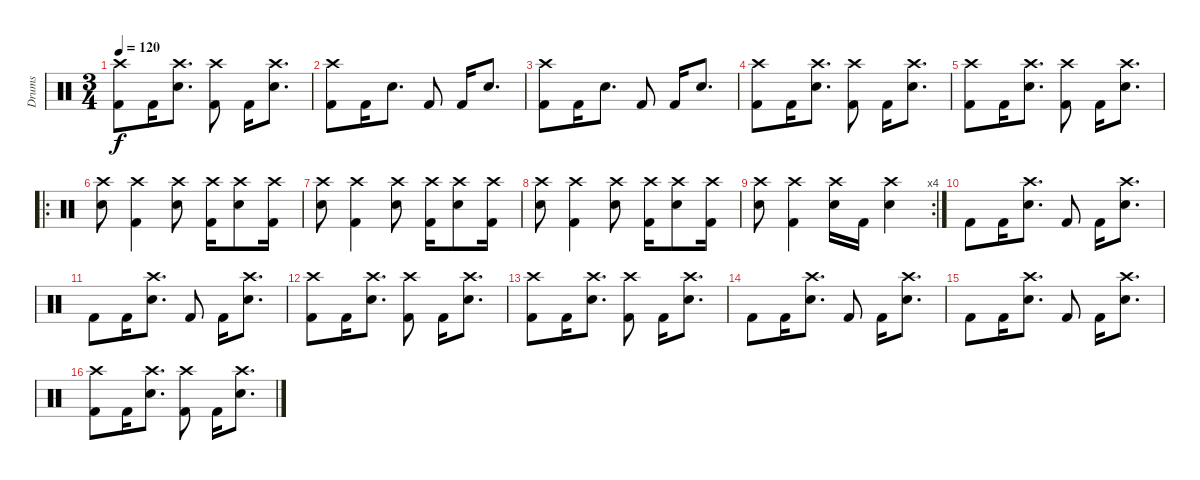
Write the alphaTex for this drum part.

\track ("Drums" "Drums") {instrument percussion}
\staff {score}
\articulation defaults
\ts (3 4)
\tempo 120
\clef neutral
\ks c
("Crash high (hit)" "Kick (hit) 2").8{dy f} "Kick (hit) 2".16 ("Crash high (hit)" "Snare (hit) 2").8{d} ("Crash high (hit)" "Kick (hit) 2").8 "Kick (hit) 2".16 ("Crash high (hit)" "Snare (hit) 2").8{d} |
("Crash high (hit)" "Kick (hit) 2").8 "Kick (hit) 2".16 "Snare (hit) 2".8{d} "Kick (hit) 2".8 "Kick (hit) 2".16 "Snare (hit) 2".8{d} |
("Crash high (hit)" "Kick (hit) 2").8 "Kick (hit) 2".16 "Snare (hit) 2".8{d} "Kick (hit) 2".8 "Kick (hit) 2".16 "Snare (hit) 2".8{d} |
("Crash high (hit)" "Kick (hit) 2").8 "Kick (hit) 2".16 ("Crash high (hit)" "Snare (hit) 2").8{d} ("Crash high (hit)" "Kick (hit) 2").8 "Kick (hit) 2".16 ("Crash high (hit)" "Snare (hit) 2").8{d} |
("Crash high (hit)" "Kick (hit) 2").8 "Kick (hit) 2".16 ("Crash high (hit)" "Snare (hit) 2").8{d} ("Crash high (hit)" "Kick (hit) 2").8 "Kick (hit) 2".16 ("Crash high (hit)" "Snare (hit) 2").8{d} |
\ro
("Crash high (hit)" "Snare (hit) 2").8 ("Crash high (hit)" "Kick (hit) 2").4 ("Crash high (hit)" "Snare (hit) 2").8 ("Crash high (hit)" "Kick (hit) 2").16 ("Crash high (hit)" "Snare (hit) 2").8 ("Crash high (hit)" "Kick (hit) 2").16 |
("Crash high (hit)" "Snare (hit) 2").8 ("Crash high (hit)" "Kick (hit) 2").4 ("Crash high (hit)" "Snare (hit) 2").8 ("Crash high (hit)" "Kick (hit) 2").16 ("Crash high (hit)" "Snare (hit) 2").8 ("Crash high (hit)" "Kick (hit) 2").16 |
("Crash high (hit)" "Snare (hit) 2").8 ("Crash high (hit)" "Kick (hit) 2").4 ("Crash high (hit)" "Snare (hit) 2").8 ("Crash high (hit)" "Kick (hit) 2").16 ("Crash high (hit)" "Snare (hit) 2").8 ("Crash high (hit)" "Kick (hit) 2").16 |
\rc 4
("Crash high (hit)" "Snare (hit) 2").8 ("Crash high (hit)" "Kick (hit) 2").4 ("Crash high (hit)" "Snare (hit) 2").16 "Kick (hit) 2".16 ("Crash high (hit)" "Snare (hit) 2").4 |
"Kick (hit) 2".8 "Kick (hit) 2".16 ("Crash high (hit)" "Snare (hit) 2").8{d} "Kick (hit) 2".8 "Kick (hit) 2".16 ("Crash high (hit)" "Snare (hit) 2").8{d} |
"Kick (hit) 2".8 "Kick (hit) 2".16 ("Crash high (hit)" "Snare (hit) 2").8{d} "Kick (hit) 2".8 "Kick (hit) 2".16 ("Crash high (hit)" "Snare (hit) 2").8{d} |
("Crash high (hit)" "Kick (hit) 2").8 "Kick (hit) 2".16 ("Crash high (hit)" "Snare (hit) 2").8{d} ("Crash high (hit)" "Kick (hit) 2").8 "Kick (hit) 2".16 ("Crash high (hit)" "Snare (hit) 2").8{d} |
("Crash high (hit)" "Kick (hit) 2").8 "Kick (hit) 2".16 ("Crash high (hit)" "Snare (hit) 2").8{d} ("Crash high (hit)" "Kick (hit) 2").8 "Kick (hit) 2".16 ("Crash high (hit)" "Snare (hit) 2").8{d} |
"Kick (hit) 2".8 "Kick (hit) 2".16 ("Crash high (hit)" "Snare (hit) 2").8{d} "Kick (hit) 2".8 "Kick (hit) 2".16 ("Crash high (hit)" "Snare (hit) 2").8{d} |
"Kick (hit) 2".8 "Kick (hit) 2".16 ("Crash high (hit)" "Snare (hit) 2").8{d} "Kick (hit) 2".8 "Kick (hit) 2".16 ("Crash high (hit)" "Snare (hit) 2").8{d} |
("Crash high (hit)" "Kick (hit) 2").8 "Kick (hit) 2".16 ("Crash high (hit)" "Snare (hit) 2").8{d} ("Crash high (hit)" "Kick (hit) 2").8 "Kick (hit) 2".16 ("Crash high (hit)" "Snare (hit) 2").8{d}
